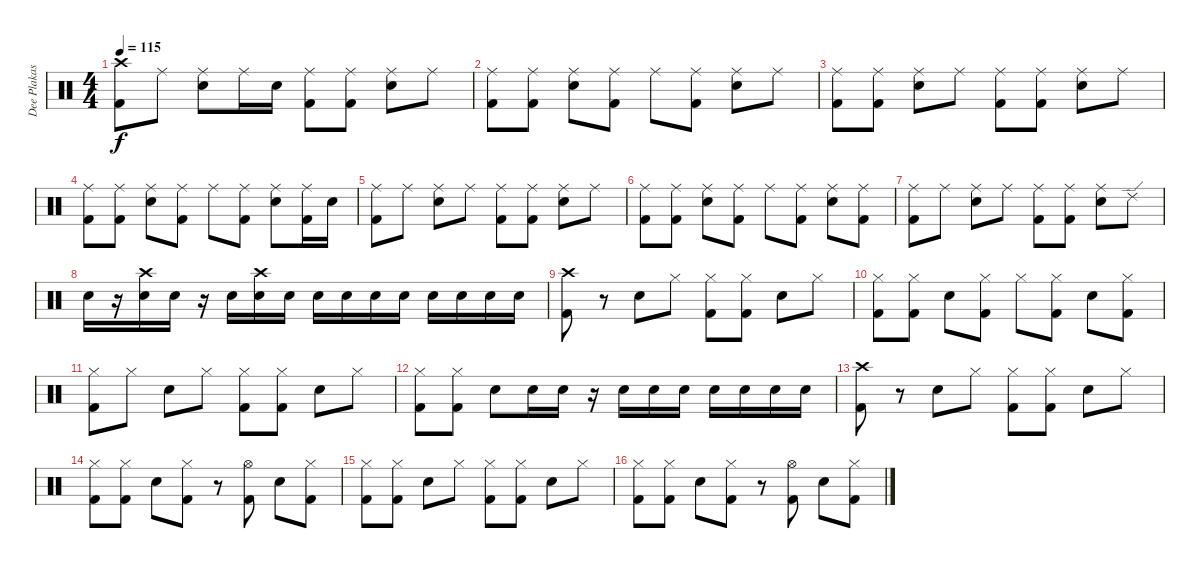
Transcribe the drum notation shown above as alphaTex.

\track ("Dee Plakas" "Dee Plakas") {instrument percussion}
\staff {score}
\articulation defaults
\ts (4 4)
\tempo 115
\clef neutral
\ks c
("Crash high (hit)" "Kick (hit) 2").8{dy f} "Ride (middle)".8 ("Ride (middle)" "Snare (hit) 2").8 "Ride (middle)".16 "Snare (hit) 2".16 ("Ride (middle)" "Kick (hit) 2").8 ("Ride (middle)" "Kick (hit) 2").8 ("Ride (middle)" "Snare (hit) 2").8 "Ride (middle)".8 |
("Ride (middle)" "Kick (hit) 2").8 ("Ride (middle)" "Kick (hit) 2").8 ("Ride (middle)" "Snare (hit) 2").8 ("Ride (middle)" "Kick (hit) 2").8 "Ride (middle)".8 ("Ride (middle)" "Kick (hit) 2").8 ("Ride (middle)" "Snare (hit) 2").8 "Ride (middle)".8 |
("Ride (middle)" "Kick (hit) 2").8 ("Ride (middle)" "Kick (hit) 2").8 ("Ride (middle)" "Snare (hit) 2").8 "Ride (middle)".8 ("Ride (middle)" "Kick (hit) 2").8 ("Ride (middle)" "Kick (hit) 2").8 ("Ride (middle)" "Snare (hit) 2").8 "Ride (middle)".8 |
("Ride (middle)" "Kick (hit) 2").8 ("Ride (middle)" "Kick (hit) 2").8 ("Ride (middle)" "Snare (hit) 2").8 ("Ride (middle)" "Kick (hit) 2").8 "Ride (middle)".8 ("Ride (middle)" "Kick (hit) 2").8 ("Ride (middle)" "Snare (hit) 2").8 ("Ride (middle)" "Kick (hit) 2").16 "Snare (hit) 2".16 |
("Ride (middle)" "Kick (hit) 2").8 "Ride (middle)".8 ("Ride (middle)" "Snare (hit) 2").8 "Ride (middle)".8 ("Ride (middle)" "Kick (hit) 2").8 ("Ride (middle)" "Kick (hit) 2").8 ("Ride (middle)" "Snare (hit) 2").8 "Ride (middle)".8 |
("Ride (middle)" "Kick (hit) 2").8 ("Ride (middle)" "Kick (hit) 2").8 ("Ride (middle)" "Snare (hit) 2").8 ("Ride (middle)" "Kick (hit) 2").8 "Ride (middle)".8 ("Ride (middle)" "Kick (hit) 2").8 ("Ride (middle)" "Snare (hit) 2").8 ("Ride (middle)" "Kick (hit) 2").8 |
("Ride (middle)" "Kick (hit) 2").8 "Ride (middle)".8 ("Ride (middle)" "Snare (hit) 2").8 "Ride (middle)".8 ("Ride (middle)" "Kick (hit) 2").8 ("Ride (middle)" "Kick (hit) 2").8 ("Ride (middle)" "Snare (hit) 2").8 "Ride (edge) 2".8 |
"Snare (hit) 2".16 r.16 ("Crash high (hit)" "Snare (hit) 2").16 "Snare (hit) 2".16 r.16 "Snare (hit) 2".16 ("Crash high (hit)" "Snare (hit) 2").16 "Snare (hit) 2".16 "Snare (hit) 2".16 "Snare (hit) 2".16 "Snare (hit) 2".16 "Snare (hit) 2".16 "Snare (hit) 2".16 "Snare (hit) 2".16 "Snare (hit) 2".16 "Snare (hit) 2".16 |
("Crash high (hit)" "Kick (hit) 2").8 r.8 "Snare (hit) 2".8 "Hi-Hat (closed)".8 ("Hi-Hat (closed)" "Kick (hit) 2").8 ("Hi-Hat (closed)" "Kick (hit) 2").8 "Snare (hit) 2".8 "Hi-Hat (closed)".8 |
("Hi-Hat (closed)" "Kick (hit) 2").8 ("Hi-Hat (closed)" "Kick (hit) 2").8 "Snare (hit) 2".8 ("Hi-Hat (closed)" "Kick (hit) 2").8 "Hi-Hat (closed)".8 ("Hi-Hat (closed)" "Kick (hit) 2").8 "Snare (hit) 2".8 ("Hi-Hat (closed)" "Kick (hit) 2").8 |
("Hi-Hat (closed)" "Kick (hit) 2").8 "Hi-Hat (closed)".8 "Snare (hit) 2".8 "Hi-Hat (closed)".8 ("Hi-Hat (closed)" "Kick (hit) 2").8 ("Hi-Hat (closed)" "Kick (hit) 2").8 "Snare (hit) 2".8 "Hi-Hat (closed)".8 |
("Hi-Hat (closed)" "Kick (hit) 2").8 ("Hi-Hat (closed)" "Kick (hit) 2").8 "Snare (hit) 2".8 "Snare (hit) 2".16 "Snare (hit) 2".16 r.16 "Snare (hit) 2".16 "Snare (hit) 2".16 "Snare (hit) 2".16 "Snare (hit) 2".16 "Snare (hit) 2".16 "Snare (hit) 2".16 "Snare (hit) 2".16 |
("Crash high (hit)" "Kick (hit) 2").8 r.8 "Snare (hit) 2".8 "Hi-Hat (closed)".8 ("Hi-Hat (closed)" "Kick (hit) 2").8 ("Hi-Hat (closed)" "Kick (hit) 2").8 "Snare (hit) 2".8 "Hi-Hat (closed)".8 |
("Hi-Hat (closed)" "Kick (hit) 2").8 ("Hi-Hat (closed)" "Kick (hit) 2").8 "Snare (hit) 2".8 ("Hi-Hat (closed)" "Kick (hit) 2").8 r.8 ("Hi-Hat (open)" "Kick (hit) 2").8 "Snare (hit) 2".8 ("Hi-Hat (closed)" "Kick (hit) 2").8 |
("Hi-Hat (closed)" "Kick (hit) 2").8 ("Hi-Hat (closed)" "Kick (hit) 2").8 "Snare (hit) 2".8 "Hi-Hat (closed)".8 ("Hi-Hat (closed)" "Kick (hit) 2").8 ("Hi-Hat (closed)" "Kick (hit) 2").8 "Snare (hit) 2".8 "Hi-Hat (closed)".8 |
("Hi-Hat (closed)" "Kick (hit) 2").8 ("Hi-Hat (closed)" "Kick (hit) 2").8 "Snare (hit) 2".8 ("Hi-Hat (closed)" "Kick (hit) 2").8 r.8 ("Hi-Hat (open)" "Kick (hit) 2").8 "Snare (hit) 2".8 ("Hi-Hat (closed)" "Kick (hit) 2").8
